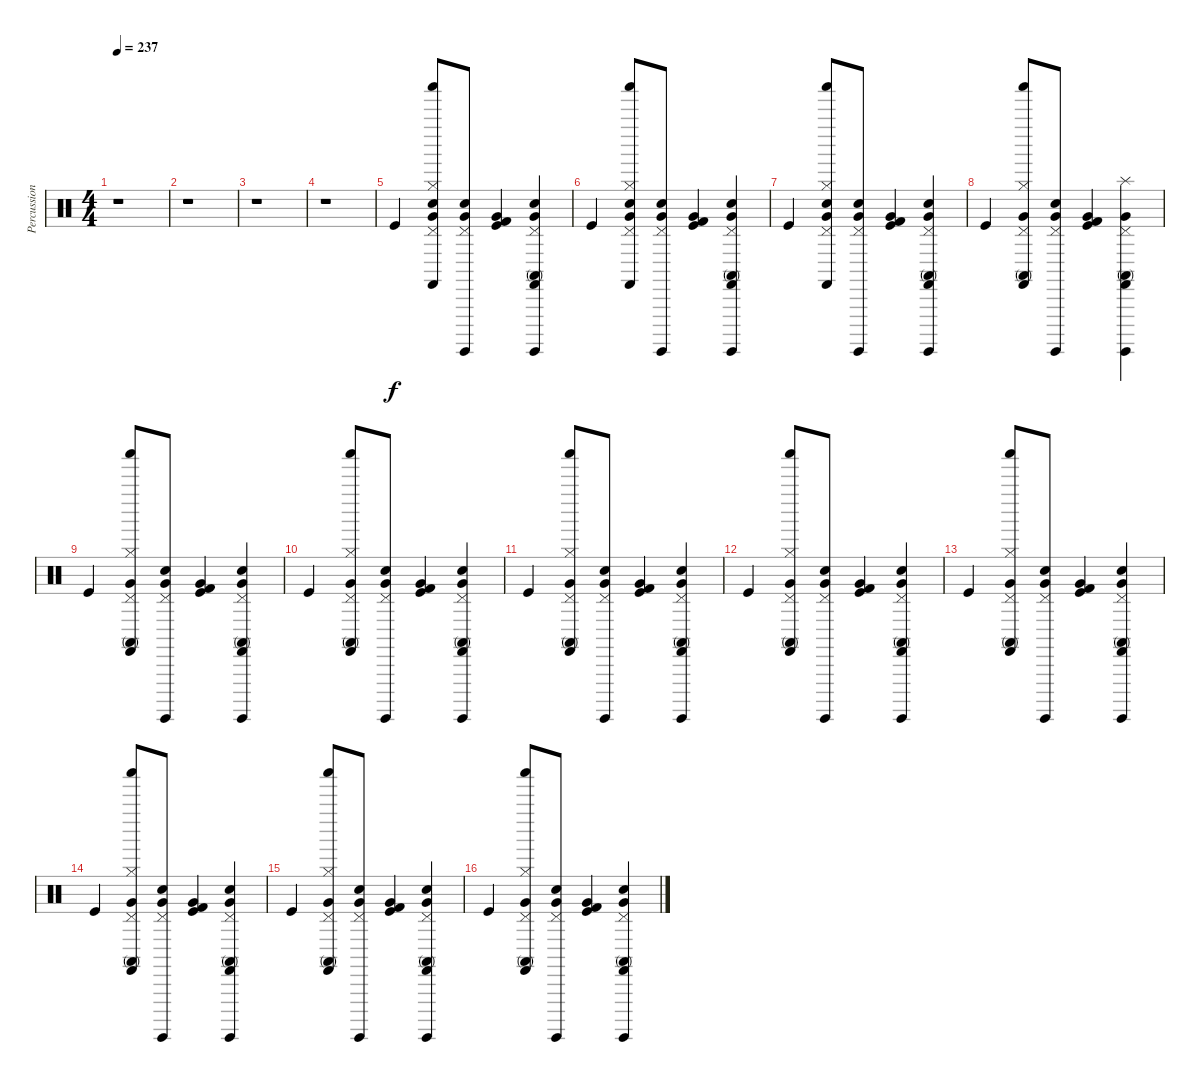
\track ("Percussions" "Percussion") {instrument percussion}
\staff {score}
\articulation defaults
\ts (4 4)
\tempo 237
\clef neutral
\ks c
r.1{dy f} |
r.1 |
r.1 |
r.1 |
"Kick (hit)".4 ("Hi-Hat (closed)" "Shaker (hit)" "Pedal Hi-Hat (hit)" "Very Low Tom (hit)" "Hand Clap (hit)" "Castanets (hit)").8 ("Hand Clap (hit)" "Surdo (hit)" "Pedal Hi-Hat (hit)" "Very Low Tom (hit)").8 ("Kick (hit)" "Kick (hit) 2" "Very Low Tom (hit)").4 ("Hand Clap (hit)" "Surdo (hit)" "Pedal Hi-Hat (hit)" "Very Low Tom (hit)" "Conga high (mute)" "Castanets (hit)").4 |
"Kick (hit)".4 ("Hi-Hat (closed)" "Shaker (hit)" "Pedal Hi-Hat (hit)" "Very Low Tom (hit)" "Hand Clap (hit)" "Castanets (hit)").8 ("Hand Clap (hit)" "Surdo (hit)" "Pedal Hi-Hat (hit)" "Very Low Tom (hit)").8 ("Kick (hit)" "Kick (hit) 2" "Very Low Tom (hit)").4 ("Hand Clap (hit)" "Surdo (hit)" "Pedal Hi-Hat (hit)" "Very Low Tom (hit)" "Conga high (mute)" "Castanets (hit)").4 |
"Kick (hit)".4 ("Hi-Hat (closed)" "Shaker (hit)" "Pedal Hi-Hat (hit)" "Very Low Tom (hit)" "Hand Clap (hit)" "Castanets (hit)").8 ("Hand Clap (hit)" "Surdo (hit)" "Pedal Hi-Hat (hit)" "Very Low Tom (hit)").8 ("Kick (hit)" "Kick (hit) 2" "Very Low Tom (hit)").4 ("Hand Clap (hit)" "Surdo (hit)" "Pedal Hi-Hat (hit)" "Very Low Tom (hit)" "Conga high (mute)" "Castanets (hit)").4 |
"Kick (hit)".4 ("Hi-Hat (closed)" "Shaker (hit)" "Pedal Hi-Hat (hit)" "Very Low Tom (hit)" "Conga high (mute)" "Castanets (hit)").8 ("Hand Clap (hit)" "Surdo (hit)" "Pedal Hi-Hat (hit)" "Very Low Tom (hit)").8 ("Kick (hit)" "Kick (hit) 2" "Very Low Tom (hit)").4 ("Splash (hit)" "Surdo (hit)" "Pedal Hi-Hat (hit)" "Very Low Tom (hit)" "Conga high (mute)" "Castanets (hit)").4 |
"Kick (hit)".4 ("Hi-Hat (closed)" "Shaker (hit)" "Pedal Hi-Hat (hit)" "Very Low Tom (hit)" "Conga high (mute)" "Castanets (hit)").8 ("Hand Clap (hit)" "Surdo (hit)" "Pedal Hi-Hat (hit)" "Very Low Tom (hit)").8 ("Kick (hit)" "Kick (hit) 2" "Very Low Tom (hit)").4 ("Hand Clap (hit)" "Surdo (hit)" "Pedal Hi-Hat (hit)" "Very Low Tom (hit)" "Conga high (mute)" "Castanets (hit)").4 |
"Kick (hit)".4 ("Hi-Hat (closed)" "Shaker (hit)" "Pedal Hi-Hat (hit)" "Very Low Tom (hit)" "Conga high (mute)" "Castanets (hit)").8 ("Hand Clap (hit)" "Surdo (hit)" "Pedal Hi-Hat (hit)" "Very Low Tom (hit)").8 ("Kick (hit)" "Kick (hit) 2" "Very Low Tom (hit)").4 ("Hand Clap (hit)" "Surdo (hit)" "Pedal Hi-Hat (hit)" "Very Low Tom (hit)" "Conga high (mute)" "Castanets (hit)").4 |
"Kick (hit)".4 ("Hi-Hat (closed)" "Shaker (hit)" "Pedal Hi-Hat (hit)" "Very Low Tom (hit)" "Conga high (mute)" "Castanets (hit)").8 ("Hand Clap (hit)" "Surdo (hit)" "Pedal Hi-Hat (hit)" "Very Low Tom (hit)").8 ("Kick (hit)" "Kick (hit) 2" "Very Low Tom (hit)").4 ("Hand Clap (hit)" "Surdo (hit)" "Pedal Hi-Hat (hit)" "Very Low Tom (hit)" "Conga high (mute)" "Castanets (hit)").4 |
"Kick (hit)".4 ("Hi-Hat (closed)" "Shaker (hit)" "Pedal Hi-Hat (hit)" "Very Low Tom (hit)" "Conga high (mute)" "Castanets (hit)").8 ("Hand Clap (hit)" "Surdo (hit)" "Pedal Hi-Hat (hit)" "Very Low Tom (hit)").8 ("Kick (hit)" "Kick (hit) 2" "Very Low Tom (hit)").4 ("Hand Clap (hit)" "Surdo (hit)" "Pedal Hi-Hat (hit)" "Very Low Tom (hit)" "Conga high (mute)" "Castanets (hit)").4 |
"Kick (hit)".4 ("Hi-Hat (closed)" "Shaker (hit)" "Pedal Hi-Hat (hit)" "Very Low Tom (hit)" "Conga high (mute)" "Castanets (hit)").8 ("Hand Clap (hit)" "Surdo (hit)" "Pedal Hi-Hat (hit)" "Very Low Tom (hit)").8 ("Kick (hit)" "Kick (hit) 2" "Very Low Tom (hit)").4 ("Hand Clap (hit)" "Surdo (hit)" "Pedal Hi-Hat (hit)" "Very Low Tom (hit)" "Conga high (mute)" "Castanets (hit)").4 |
"Kick (hit)".4 ("Hi-Hat (closed)" "Shaker (hit)" "Pedal Hi-Hat (hit)" "Very Low Tom (hit)" "Conga high (mute)" "Castanets (hit)").8 ("Hand Clap (hit)" "Surdo (hit)" "Pedal Hi-Hat (hit)" "Very Low Tom (hit)").8 ("Kick (hit)" "Kick (hit) 2" "Very Low Tom (hit)").4 ("Hand Clap (hit)" "Surdo (hit)" "Pedal Hi-Hat (hit)" "Very Low Tom (hit)" "Conga high (mute)" "Castanets (hit)").4 |
"Kick (hit)".4 ("Hi-Hat (closed)" "Shaker (hit)" "Pedal Hi-Hat (hit)" "Very Low Tom (hit)" "Conga high (mute)" "Castanets (hit)").8 ("Hand Clap (hit)" "Surdo (hit)" "Pedal Hi-Hat (hit)" "Very Low Tom (hit)").8 ("Kick (hit)" "Kick (hit) 2" "Very Low Tom (hit)").4 ("Hand Clap (hit)" "Surdo (hit)" "Pedal Hi-Hat (hit)" "Very Low Tom (hit)" "Conga high (mute)" "Castanets (hit)").4 |
"Kick (hit)".4 ("Hi-Hat (closed)" "Shaker (hit)" "Pedal Hi-Hat (hit)" "Very Low Tom (hit)" "Conga high (mute)" "Castanets (hit)").8 ("Hand Clap (hit)" "Surdo (hit)" "Pedal Hi-Hat (hit)" "Very Low Tom (hit)").8 ("Kick (hit)" "Kick (hit) 2" "Very Low Tom (hit)").4 ("Hand Clap (hit)" "Surdo (hit)" "Pedal Hi-Hat (hit)" "Very Low Tom (hit)" "Conga high (mute)" "Castanets (hit)").4
